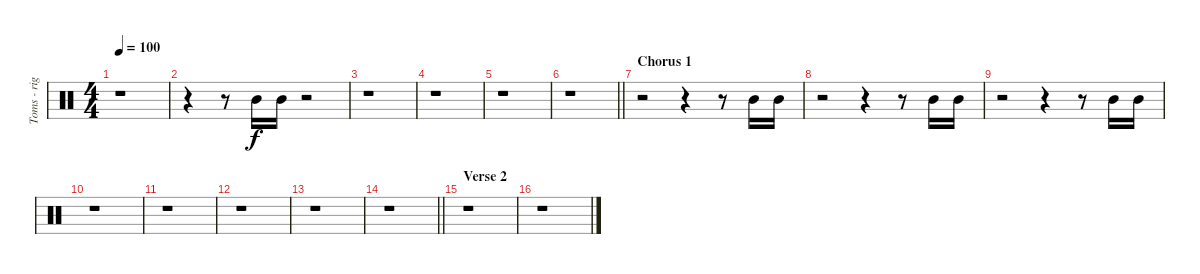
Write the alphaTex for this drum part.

\track ("Toms - right" "Toms - rig") {instrument percussion}
\staff {score}
\articulation defaults
\ts (4 4)
\tempo 100
\clef neutral
\ks c
r.1{dy f} |
r.4 r.8 "Mid Tom (hit)".16 "Mid Tom (hit)".16 r.2 |
r.1 |
r.1 |
r.1 |
\barLineRight lightlight
r.1 |
\section ("" "Chorus 1")
r.2 r.4 r.8 "Mid Tom (hit)".16 "Mid Tom (hit)".16 |
r.2 r.4 r.8 "Mid Tom (hit)".16 "Mid Tom (hit)".16 |
r.2 r.4 r.8 "Mid Tom (hit)".16 "Mid Tom (hit)".16 |
r.1 |
r.1 |
r.1 |
r.1 |
\barLineRight lightlight
r.1 |
\section ("" "Verse 2")
r.1 |
r.1
